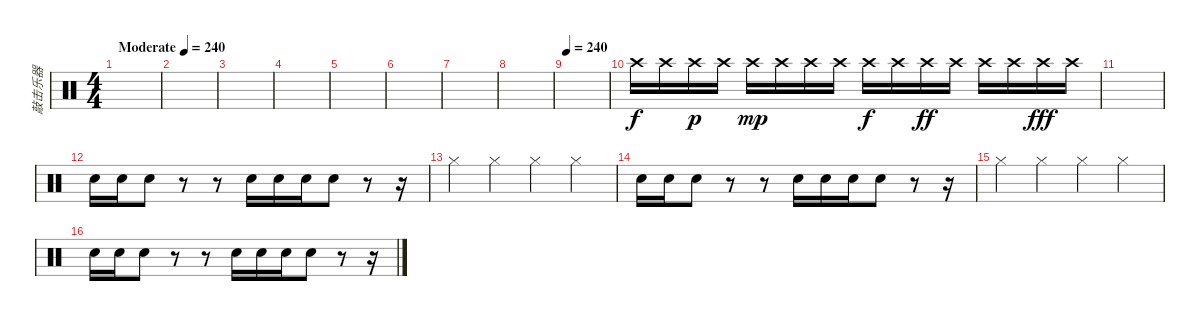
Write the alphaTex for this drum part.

\track ("敲击乐器" "敲击乐器") {instrument percussion}
\staff {score}
\articulation defaults
\ts (4 4)
\tempo (240 "Moderate")
\tempo 90
\tempo (240 "Moderate")
\clef neutral
\ks c
|
|
|
|
|
|
|
|
\tempo 240
|
"Crash high (hit)".16 "Crash high (hit)".16 "Crash high (hit)".16{dy p} "Crash high (hit)".16 "Crash high (hit)".16{dy mp} "Crash high (hit)".16 "Crash high (hit)".16 "Crash high (hit)".16 "Crash high (hit)".16{dy f} "Crash high (hit)".16 "Crash high (hit)".16{dy ff} "Crash high (hit)".16 "Crash high (hit)".16 "Crash high (hit)".16 "Crash high (hit)".16{dy fff} "Crash high (hit)".16 |
|
"Snare (hit) 2".16 "Snare (hit) 2".16 "Snare (hit) 2".8 r.8 r.8 "Snare (hit) 2".16 "Snare (hit) 2".16 "Snare (hit) 2".16 "Snare (hit) 2".8 r.8 r.16 |
"Hi-Hat (closed)".4 "Hi-Hat (closed)".4 "Hi-Hat (closed)".4 "Hi-Hat (closed)".4 |
"Snare (hit) 2".16 "Snare (hit) 2".16 "Snare (hit) 2".8 r.8 r.8 "Snare (hit) 2".16 "Snare (hit) 2".16 "Snare (hit) 2".16 "Snare (hit) 2".8 r.8 r.16 |
"Hi-Hat (closed)".4 "Hi-Hat (closed)".4 "Hi-Hat (closed)".4 "Hi-Hat (closed)".4 |
"Snare (hit) 2".16 "Snare (hit) 2".16 "Snare (hit) 2".8 r.8 r.8 "Snare (hit) 2".16 "Snare (hit) 2".16 "Snare (hit) 2".16 "Snare (hit) 2".8 r.8 r.16
